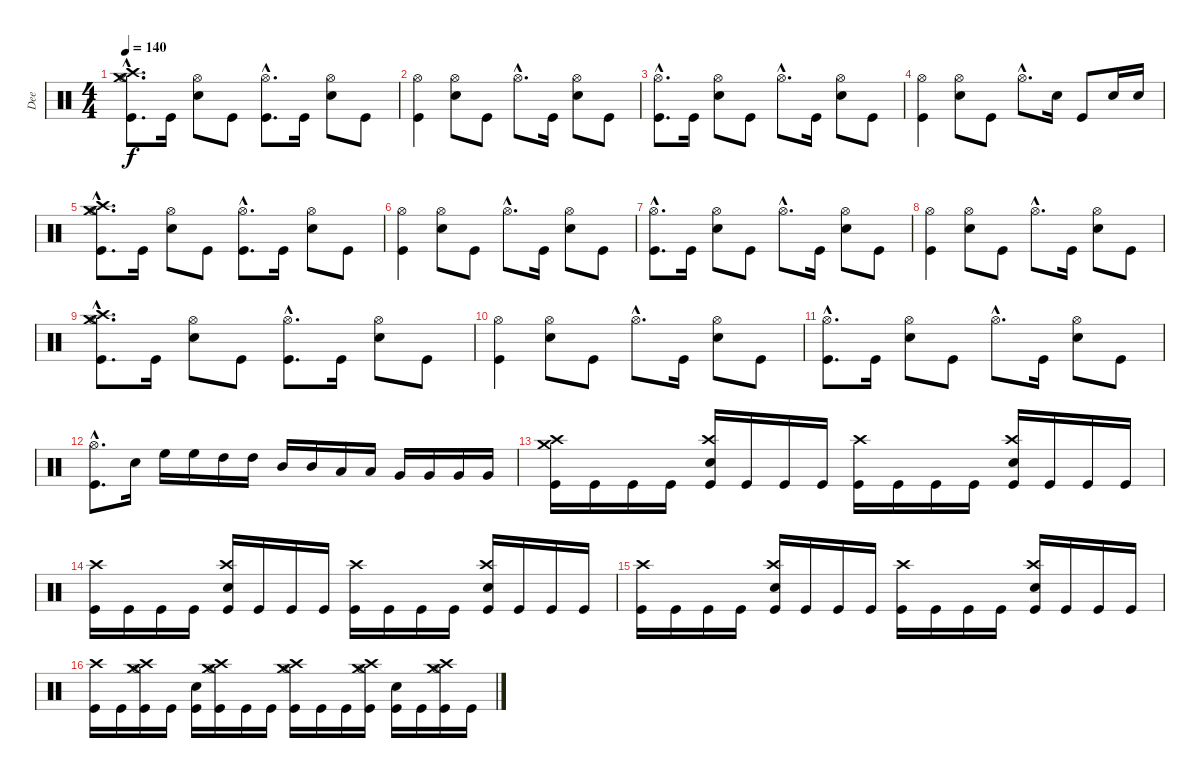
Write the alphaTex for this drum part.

\track ("Dee" "Dee") {instrument percussion}
\staff {score}
\articulation defaults
\ts (4 4)
\tempo 140
\clef neutral
\ks c
("Kick (hit)"{hac} "Crash medium (hit)"{hac} "Crash high (hit)"{hac} "Hi-Hat (open)"{hac}).8{d dy f} "Kick (hit)".16 ("Electric Snare (hit)" "Hi-Hat (open)").8 "Kick (hit)".8 ("Kick (hit)"{hac} "Hi-Hat (open)"{hac}).8{d} "Kick (hit)".16 ("Electric Snare (hit)" "Hi-Hat (open)").8 "Kick (hit)".8 |
("Kick (hit)" "Hi-Hat (open)").4 ("Electric Snare (hit)" "Hi-Hat (open)").8 "Kick (hit)".8 "Hi-Hat (open)"{hac}.8{d} "Kick (hit)".16 ("Electric Snare (hit)" "Hi-Hat (open)").8 "Kick (hit)".8 |
("Kick (hit)"{hac} "Hi-Hat (open)"{hac}).8{d} "Kick (hit)".16 ("Electric Snare (hit)" "Hi-Hat (open)").8 "Kick (hit)".8 "Hi-Hat (open)"{hac}.8{d} "Kick (hit)".16 ("Electric Snare (hit)" "Hi-Hat (open)").8 "Kick (hit)".8 |
("Kick (hit)" "Hi-Hat (open)").4 ("Electric Snare (hit)" "Hi-Hat (open)").8 "Kick (hit)".8 "Hi-Hat (open)"{hac}.8{d} "Electric Snare (hit)".16 "Kick (hit)".8 "Electric Snare (hit)".16 "Electric Snare (hit)".16 |
("Kick (hit)"{hac} "Crash medium (hit)"{hac} "Crash high (hit)"{hac} "Hi-Hat (open)"{hac}).8{d} "Kick (hit)".16 ("Electric Snare (hit)" "Hi-Hat (open)").8 "Kick (hit)".8 ("Kick (hit)"{hac} "Hi-Hat (open)"{hac}).8{d} "Kick (hit)".16 ("Electric Snare (hit)" "Hi-Hat (open)").8 "Kick (hit)".8 |
("Kick (hit)" "Hi-Hat (open)").4 ("Electric Snare (hit)" "Hi-Hat (open)").8 "Kick (hit)".8 "Hi-Hat (open)"{hac}.8{d} "Kick (hit)".16 ("Electric Snare (hit)" "Hi-Hat (open)").8 "Kick (hit)".8 |
("Kick (hit)"{hac} "Hi-Hat (open)"{hac}).8{d} "Kick (hit)".16 ("Electric Snare (hit)" "Hi-Hat (open)").8 "Kick (hit)".8 "Hi-Hat (open)"{hac}.8{d} "Kick (hit)".16 ("Electric Snare (hit)" "Hi-Hat (open)").8 "Kick (hit)".8 |
("Kick (hit)" "Hi-Hat (open)").4 ("Electric Snare (hit)" "Hi-Hat (open)").8 "Kick (hit)".8 "Hi-Hat (open)"{hac}.8{d} "Kick (hit)".16 ("Electric Snare (hit)" "Hi-Hat (open)").8 "Kick (hit)".8 |
("Kick (hit)"{hac} "Crash medium (hit)"{hac} "Crash high (hit)"{hac} "Hi-Hat (open)"{hac}).8{d} "Kick (hit)".16 ("Electric Snare (hit)" "Hi-Hat (open)").8 "Kick (hit)".8 ("Kick (hit)"{hac} "Hi-Hat (open)"{hac}).8{d} "Kick (hit)".16 ("Electric Snare (hit)" "Hi-Hat (open)").8 "Kick (hit)".8 |
("Kick (hit)" "Hi-Hat (open)").4 ("Electric Snare (hit)" "Hi-Hat (open)").8 "Kick (hit)".8 "Hi-Hat (open)"{hac}.8{d} "Kick (hit)".16 ("Electric Snare (hit)" "Hi-Hat (open)").8 "Kick (hit)".8 |
("Kick (hit)"{hac} "Hi-Hat (open)"{hac}).8{d} "Kick (hit)".16 ("Electric Snare (hit)" "Hi-Hat (open)").8 "Kick (hit)".8 "Hi-Hat (open)"{hac}.8{d} "Kick (hit)".16 ("Electric Snare (hit)" "Hi-Hat (open)").8 "Kick (hit)".8 |
("Kick (hit)"{hac} "Hi-Hat (open)"{hac}).8{d} "Electric Snare (hit)".16 "High Floor Tom (hit)".16 "High Floor Tom (hit)".16 "High Tom (hit)".16 "High Tom (hit)".16 "Mid Tom (hit)".16 "Mid Tom (hit)".16 "Low Tom (hit)".16 "Low Tom (hit)".16 "Very Low Tom (hit)".16 "Very Low Tom (hit)".16 "Very Low Tom (hit)".16 "Very Low Tom (hit)".16 |
("Kick (hit)" "Crash high (hit)" "Crash medium (hit)").16 "Kick (hit)".16 "Kick (hit)".16 "Kick (hit)".16 ("Electric Snare (hit)" "Kick (hit)" "Crash high (hit)").16 "Kick (hit)".16 "Kick (hit)".16 "Kick (hit)".16 ("Kick (hit)" "Crash high (hit)").16 "Kick (hit)".16 "Kick (hit)".16 "Kick (hit)".16 ("Electric Snare (hit)" "Kick (hit)" "Crash high (hit)").16 "Kick (hit)".16 "Kick (hit)".16 "Kick (hit)".16 |
("Kick (hit)" "Crash high (hit)").16 "Kick (hit)".16 "Kick (hit)".16 "Kick (hit)".16 ("Electric Snare (hit)" "Kick (hit)" "Crash high (hit)").16 "Kick (hit)".16 "Kick (hit)".16 "Kick (hit)".16 ("Kick (hit)" "Crash high (hit)").16 "Kick (hit)".16 "Kick (hit)".16 "Kick (hit)".16 ("Electric Snare (hit)" "Kick (hit)" "Crash high (hit)").16 "Kick (hit)".16 "Kick (hit)".16 "Kick (hit)".16 |
("Kick (hit)" "Crash high (hit)").16 "Kick (hit)".16 "Kick (hit)".16 "Kick (hit)".16 ("Electric Snare (hit)" "Kick (hit)" "Crash high (hit)").16 "Kick (hit)".16 "Kick (hit)".16 "Kick (hit)".16 ("Kick (hit)" "Crash high (hit)").16 "Kick (hit)".16 "Kick (hit)".16 "Kick (hit)".16 ("Electric Snare (hit)" "Kick (hit)" "Crash high (hit)").16 "Kick (hit)".16 "Kick (hit)".16 "Kick (hit)".16 |
("Kick (hit)" "Crash high (hit)").16 "Kick (hit)".16 ("Kick (hit)" "Hi-Hat (open)" "Crash high (hit)" "Crash medium (hit)").16 "Kick (hit)".16 ("Electric Snare (hit)" "Kick (hit)").16 ("Kick (hit)" "Hi-Hat (open)" "Crash high (hit)" "Crash medium (hit)").16 "Kick (hit)".16 "Kick (hit)".16 ("Kick (hit)" "Hi-Hat (open)" "Crash high (hit)" "Crash medium (hit)").16 "Kick (hit)".16 "Kick (hit)".16 ("Kick (hit)" "Hi-Hat (open)" "Crash high (hit)" "Crash medium (hit)").16 ("Electric Snare (hit)" "Kick (hit)").16 "Kick (hit)".16 ("Kick (hit)" "Crash medium (hit)" "Crash high (hit)" "Hi-Hat (open)").16 "Kick (hit)".16
